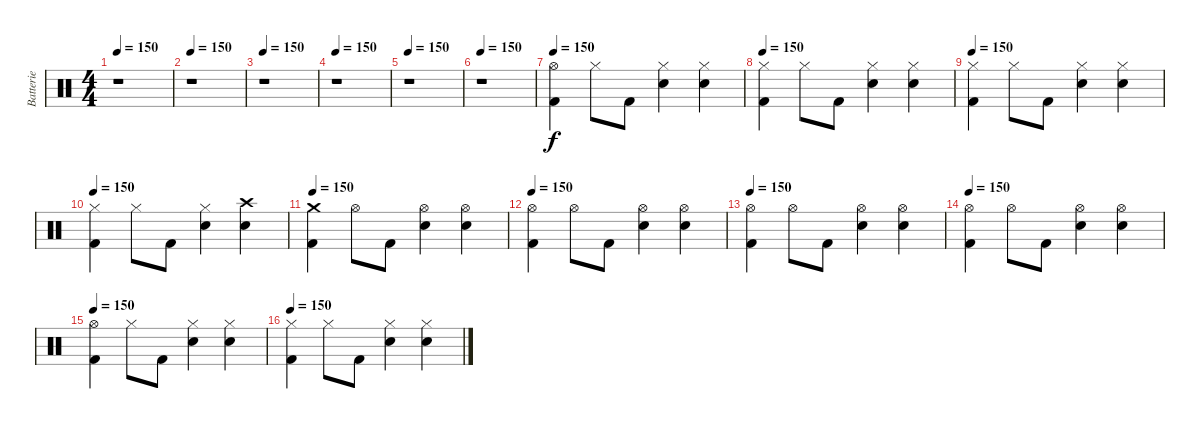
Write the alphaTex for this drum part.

\track ("Batterie" "Batterie") {instrument percussion}
\staff {score}
\articulation defaults
\ts (4 4)
\tempo 150
\clef neutral
\ks c
r.1{dy f} |
\tempo 150
r.1 |
\tempo 150
r.1 |
\tempo 150
r.1 |
\tempo 150
r.1 |
\tempo 150
r.1 |
\tempo 150
("Hi-Hat (open)" "Kick (hit) 2").4 "Hi-Hat (closed)".8 "Kick (hit) 2".8 ("Hi-Hat (closed)" "Snare (hit) 2").4 ("Hi-Hat (closed)" "Snare (hit) 2").4 |
\tempo 150
("Hi-Hat (closed)" "Kick (hit) 2").4 "Hi-Hat (closed)".8 "Kick (hit) 2".8 ("Hi-Hat (closed)" "Snare (hit) 2").4 ("Hi-Hat (closed)" "Snare (hit) 2").4 |
\tempo 150
("Hi-Hat (closed)" "Kick (hit) 2").4 "Hi-Hat (closed)".8 "Kick (hit) 2".8 ("Hi-Hat (closed)" "Snare (hit) 2").4 ("Hi-Hat (closed)" "Snare (hit) 2").4 |
\tempo 150
("Hi-Hat (closed)" "Kick (hit) 2").4 "Hi-Hat (closed)".8 "Kick (hit) 2".8 ("Hi-Hat (closed)" "Snare (hit) 2").4 ("Crash high (hit)" "Snare (hit) 2").4 |
\tempo 150
("Crash medium (hit)" "Kick (hit) 2").4 "Hi-Hat (open)".8 "Kick (hit) 2".8 ("Hi-Hat (open)" "Snare (hit) 2").4 ("Hi-Hat (open)" "Snare (hit) 2").4 |
\tempo 150
("Hi-Hat (open)" "Kick (hit) 2").4 "Hi-Hat (open)".8 "Kick (hit) 2".8 ("Hi-Hat (open)" "Snare (hit) 2").4 ("Hi-Hat (open)" "Snare (hit) 2").4 |
\tempo 150
("Hi-Hat (open)" "Kick (hit) 2").4 "Hi-Hat (open)".8 "Kick (hit) 2".8 ("Hi-Hat (open)" "Snare (hit) 2").4 ("Hi-Hat (open)" "Snare (hit) 2").4 |
\tempo 150
("Hi-Hat (open)" "Kick (hit) 2").4 "Hi-Hat (open)".8 "Kick (hit) 2".8 ("Hi-Hat (open)" "Snare (hit) 2").4 ("Hi-Hat (open)" "Snare (hit) 2").4 |
\tempo 150
("Hi-Hat (open)" "Kick (hit) 2").4 "Hi-Hat (closed)".8 "Kick (hit) 2".8 ("Hi-Hat (closed)" "Snare (hit) 2").4 ("Hi-Hat (closed)" "Snare (hit) 2").4 |
\tempo 150
("Hi-Hat (closed)" "Kick (hit) 2").4 "Hi-Hat (closed)".8 "Kick (hit) 2".8 ("Hi-Hat (closed)" "Snare (hit) 2").4 ("Hi-Hat (closed)" "Snare (hit) 2").4
